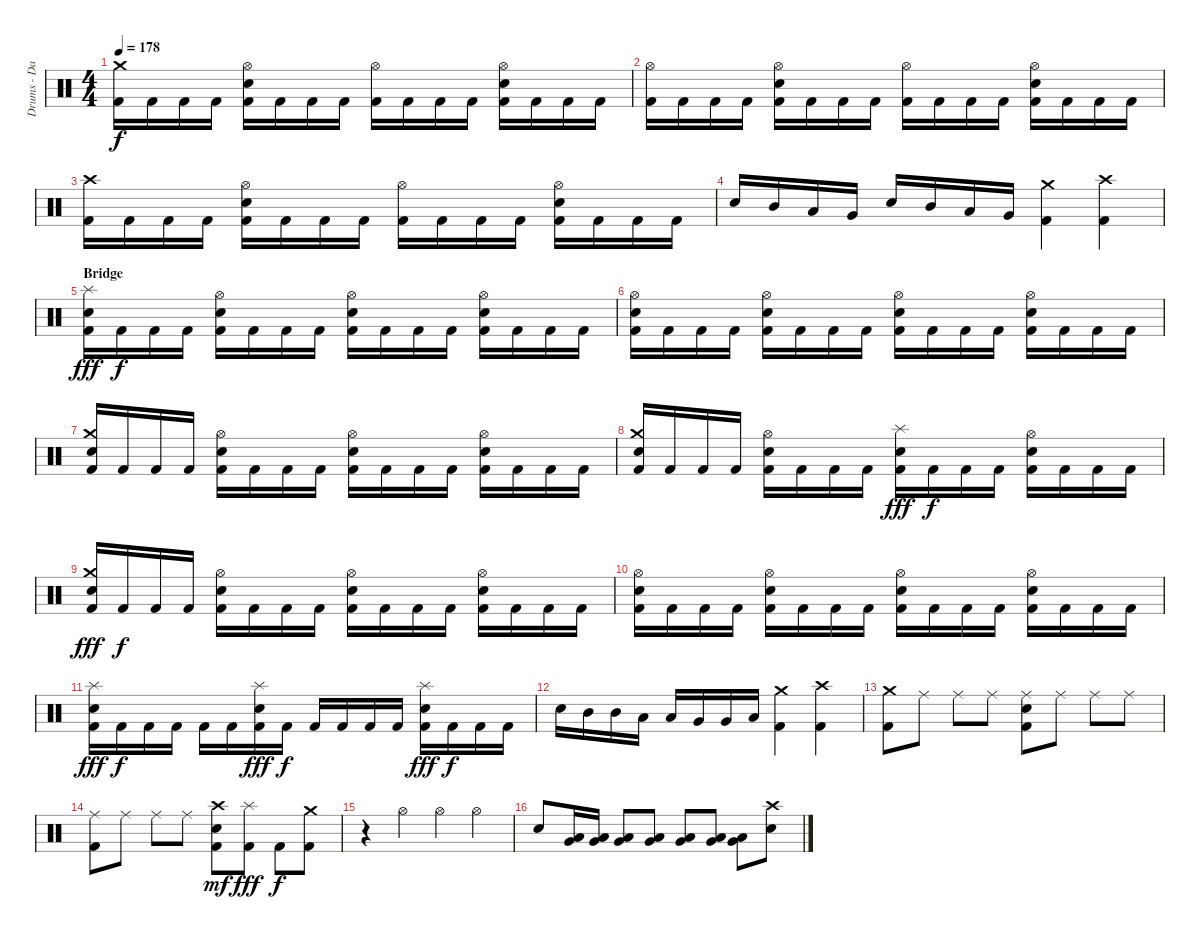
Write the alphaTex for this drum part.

\track ("Drums - Daniel Zimmermann" "Drums - Da") {instrument percussion}
\staff {score}
\articulation defaults
\ts (4 4)
\tempo 178
\clef neutral
\ks c
("Kick (hit) 2" "Crash medium (hit)").16{dy f} "Kick (hit) 2".16 "Kick (hit) 2".16 "Kick (hit) 2".16 ("Kick (hit) 2" "Electric Snare (hit)" "Hi-Hat (open)").16 "Kick (hit) 2".16 "Kick (hit) 2".16 "Kick (hit) 2".16 ("Kick (hit) 2" "Hi-Hat (open)").16 "Kick (hit) 2".16 "Kick (hit) 2".16 "Kick (hit) 2".16 ("Kick (hit) 2" "Electric Snare (hit)" "Hi-Hat (open)").16 "Kick (hit) 2".16 "Kick (hit) 2".16 "Kick (hit) 2".16 |
("Kick (hit) 2" "Hi-Hat (open)").16 "Kick (hit) 2".16 "Kick (hit) 2".16 "Kick (hit) 2".16 ("Kick (hit) 2" "Electric Snare (hit)" "Hi-Hat (open)").16 "Kick (hit) 2".16 "Kick (hit) 2".16 "Kick (hit) 2".16 ("Kick (hit) 2" "Hi-Hat (open)").16 "Kick (hit) 2".16 "Kick (hit) 2".16 "Kick (hit) 2".16 ("Kick (hit) 2" "Electric Snare (hit)" "Hi-Hat (open)").16 "Kick (hit) 2".16 "Kick (hit) 2".16 "Kick (hit) 2".16 |
("Kick (hit) 2" "Crash high (hit)").16 "Kick (hit) 2".16 "Kick (hit) 2".16 "Kick (hit) 2".16 ("Kick (hit) 2" "Electric Snare (hit)" "Hi-Hat (open)").16 "Kick (hit) 2".16 "Kick (hit) 2".16 "Kick (hit) 2".16 ("Kick (hit) 2" "Hi-Hat (open)").16 "Kick (hit) 2".16 "Kick (hit) 2".16 "Kick (hit) 2".16 ("Kick (hit) 2" "Electric Snare (hit)" "Hi-Hat (open)").16 "Kick (hit) 2".16 "Kick (hit) 2".16 "Kick (hit) 2".16 |
"Electric Snare (hit)".16 "Mid Tom (hit)".16 "Low Tom (hit)".16 "Very Low Tom (hit)".16 "Electric Snare (hit)".16 "Mid Tom (hit)".16 "Low Tom (hit)".16 "Very Low Tom (hit)".16 ("Kick (hit) 2" "Crash medium (hit)").4 ("Kick (hit) 2" "Crash high (hit)").4 |
\section ("" "Bridge")
("Kick (hit) 2" "Electric Snare (hit)" "Splash (hit)").16{dy fff} "Kick (hit) 2".16{dy f} "Kick (hit) 2".16 "Kick (hit) 2".16 ("Kick (hit) 2" "Electric Snare (hit)" "Hi-Hat (open)").16 "Kick (hit) 2".16 "Kick (hit) 2".16 "Kick (hit) 2".16 ("Kick (hit) 2" "Electric Snare (hit)" "Hi-Hat (open)").16 "Kick (hit) 2".16 "Kick (hit) 2".16 "Kick (hit) 2".16 ("Kick (hit) 2" "Electric Snare (hit)" "Hi-Hat (open)").16 "Kick (hit) 2".16 "Kick (hit) 2".16 "Kick (hit) 2".16 |
("Kick (hit) 2" "Electric Snare (hit)" "Hi-Hat (open)").16 "Kick (hit) 2".16 "Kick (hit) 2".16 "Kick (hit) 2".16 ("Kick (hit) 2" "Electric Snare (hit)" "Hi-Hat (open)").16 "Kick (hit) 2".16 "Kick (hit) 2".16 "Kick (hit) 2".16 ("Kick (hit) 2" "Electric Snare (hit)" "Hi-Hat (open)").16 "Kick (hit) 2".16 "Kick (hit) 2".16 "Kick (hit) 2".16 ("Kick (hit) 2" "Electric Snare (hit)" "Hi-Hat (open)").16 "Kick (hit) 2".16 "Kick (hit) 2".16 "Kick (hit) 2".16 |
("Kick (hit) 2" "Electric Snare (hit)" "Crash medium (hit)").16 "Kick (hit) 2".16 "Kick (hit) 2".16 "Kick (hit) 2".16 ("Kick (hit) 2" "Electric Snare (hit)" "Hi-Hat (open)").16 "Kick (hit) 2".16 "Kick (hit) 2".16 "Kick (hit) 2".16 ("Kick (hit) 2" "Electric Snare (hit)" "Hi-Hat (open)").16 "Kick (hit) 2".16 "Kick (hit) 2".16 "Kick (hit) 2".16 ("Kick (hit) 2" "Electric Snare (hit)" "Hi-Hat (open)").16 "Kick (hit) 2".16 "Kick (hit) 2".16 "Kick (hit) 2".16 |
("Kick (hit) 2" "Electric Snare (hit)" "Crash medium (hit)").16 "Kick (hit) 2".16 "Kick (hit) 2".16 "Kick (hit) 2".16 ("Kick (hit) 2" "Electric Snare (hit)" "Hi-Hat (open)").16 "Kick (hit) 2".16 "Kick (hit) 2".16 "Kick (hit) 2".16 ("Kick (hit) 2" "Electric Snare (hit)" "Splash (hit)").16{dy fff} "Kick (hit) 2".16{dy f} "Kick (hit) 2".16 "Kick (hit) 2".16 ("Kick (hit) 2" "Electric Snare (hit)" "Hi-Hat (open)").16 "Kick (hit) 2".16 "Kick (hit) 2".16 "Kick (hit) 2".16 |
("Kick (hit) 2" "Electric Snare (hit)" "Crash medium (hit)").16{dy fff} "Kick (hit) 2".16{dy f} "Kick (hit) 2".16 "Kick (hit) 2".16 ("Kick (hit) 2" "Electric Snare (hit)" "Hi-Hat (open)").16 "Kick (hit) 2".16 "Kick (hit) 2".16 "Kick (hit) 2".16 ("Kick (hit) 2" "Electric Snare (hit)" "Hi-Hat (open)").16 "Kick (hit) 2".16 "Kick (hit) 2".16 "Kick (hit) 2".16 ("Kick (hit) 2" "Electric Snare (hit)" "Hi-Hat (open)").16 "Kick (hit) 2".16 "Kick (hit) 2".16 "Kick (hit) 2".16 |
("Kick (hit) 2" "Electric Snare (hit)" "Hi-Hat (open)").16 "Kick (hit) 2".16 "Kick (hit) 2".16 "Kick (hit) 2".16 ("Kick (hit) 2" "Electric Snare (hit)" "Hi-Hat (open)").16 "Kick (hit) 2".16 "Kick (hit) 2".16 "Kick (hit) 2".16 ("Kick (hit) 2" "Electric Snare (hit)" "Hi-Hat (open)").16 "Kick (hit) 2".16 "Kick (hit) 2".16 "Kick (hit) 2".16 ("Kick (hit) 2" "Electric Snare (hit)" "Hi-Hat (open)").16 "Kick (hit) 2".16 "Kick (hit) 2".16 "Kick (hit) 2".16 |
("Kick (hit) 2" "Electric Snare (hit)" "Splash (hit)").16{dy fff} "Kick (hit) 2".16{dy f} "Kick (hit) 2".16 "Kick (hit) 2".16 "Kick (hit) 2".16 "Kick (hit) 2".16 ("Kick (hit) 2" "Electric Snare (hit)" "Splash (hit)").16{dy fff} "Kick (hit) 2".16{dy f} "Kick (hit) 2".16 "Kick (hit) 2".16 "Kick (hit) 2".16 "Kick (hit) 2".16 ("Kick (hit) 2" "Electric Snare (hit)" "Splash (hit)").16{dy fff} "Kick (hit) 2".16{dy f} "Kick (hit) 2".16 "Kick (hit) 2".16 |
"Electric Snare (hit)".16 "Mid Tom (hit)".16 "Mid Tom (hit)".16 "Low Tom (hit)".16 "Low Tom (hit)".16 "Very Low Tom (hit)".16 "Very Low Tom (hit)".16 "Low Floor Tom (hit)".16 ("Kick (hit) 2" "Crash medium (hit)").4 ("Kick (hit) 2" "Crash high (hit)").4 |
("Kick (hit) 2" "Crash medium (hit)").8 "Ride (middle)".8 "Ride (middle)".8 "Ride (middle)".8 ("Kick (hit) 2" "Electric Snare (hit)" "Ride (middle)").8 "Ride (middle)".8 "Ride (middle)".8 "Ride (middle)".8 |
("Kick (hit) 2" "Ride (middle)").8 "Ride (middle)".8 "Ride (middle)".8 "Ride (middle)".8 ("Kick (hit) 2" "Electric Snare (hit)" "Crash high (hit)").8{dy mf} ("Kick (hit) 2" "Splash (hit)").8{dy fff} "Kick (hit) 2".8{dy f} ("Kick (hit) 2" "Crash medium (hit)").8 |
r.4 "Hi-Hat (open)".4 "Hi-Hat (open)".4 "Hi-Hat (open)".4 |
"Electric Snare (hit)".8 ("Low Tom (hit)" "Very Low Tom (hit)").16 ("Low Tom (hit)" "Very Low Tom (hit)").16 ("Low Tom (hit)" "Very Low Tom (hit)").8 ("Low Tom (hit)" "Very Low Tom (hit)").8 ("Low Tom (hit)" "Very Low Tom (hit)").8 ("Very Low Tom (hit)" "Low Floor Tom (hit)").8 ("Very Low Tom (hit)" "Low Floor Tom (hit)").8 ("Electric Snare (hit)" "Crash high (hit)").8
